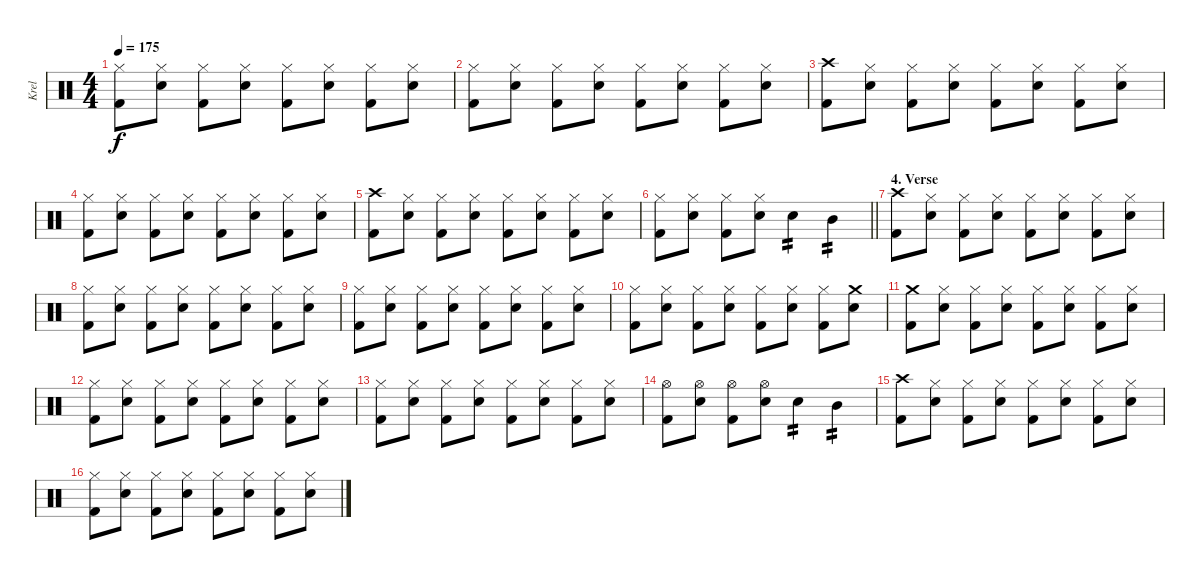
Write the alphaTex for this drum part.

\track ("Krel" "Krel") {instrument percussion}
\staff {score}
\articulation defaults
\ts (4 4)
\tempo 175
\clef neutral
\ks c
("Hi-Hat (closed)" "Kick (hit) 2").8{dy f} ("Hi-Hat (closed)" "Snare (hit) 2").8 ("Hi-Hat (closed)" "Kick (hit) 2").8 ("Hi-Hat (closed)" "Snare (hit) 2").8 ("Hi-Hat (closed)" "Kick (hit) 2").8 ("Hi-Hat (closed)" "Snare (hit) 2").8 ("Hi-Hat (closed)" "Kick (hit) 2").8 ("Hi-Hat (closed)" "Snare (hit) 2").8 |
("Hi-Hat (closed)" "Kick (hit) 2").8 ("Hi-Hat (closed)" "Snare (hit) 2").8 ("Hi-Hat (closed)" "Kick (hit) 2").8 ("Hi-Hat (closed)" "Snare (hit) 2").8 ("Hi-Hat (closed)" "Kick (hit) 2").8 ("Hi-Hat (closed)" "Snare (hit) 2").8 ("Hi-Hat (closed)" "Kick (hit) 2").8 ("Hi-Hat (closed)" "Snare (hit) 2").8 |
("Crash high (hit)" "Kick (hit) 2").8 ("Hi-Hat (closed)" "Snare (hit) 2").8 ("Hi-Hat (closed)" "Kick (hit) 2").8 ("Hi-Hat (closed)" "Snare (hit) 2").8 ("Hi-Hat (closed)" "Kick (hit) 2").8 ("Hi-Hat (closed)" "Snare (hit) 2").8 ("Hi-Hat (closed)" "Kick (hit) 2").8 ("Hi-Hat (closed)" "Snare (hit) 2").8 |
("Hi-Hat (closed)" "Kick (hit) 2").8 ("Hi-Hat (closed)" "Snare (hit) 2").8 ("Hi-Hat (closed)" "Kick (hit) 2").8 ("Hi-Hat (closed)" "Snare (hit) 2").8 ("Hi-Hat (closed)" "Kick (hit) 2").8 ("Hi-Hat (closed)" "Snare (hit) 2").8 ("Hi-Hat (closed)" "Kick (hit) 2").8 ("Hi-Hat (closed)" "Snare (hit) 2").8 |
("Crash high (hit)" "Kick (hit) 2").8 ("Hi-Hat (closed)" "Snare (hit) 2").8 ("Hi-Hat (closed)" "Kick (hit) 2").8 ("Hi-Hat (closed)" "Snare (hit) 2").8 ("Hi-Hat (closed)" "Kick (hit) 2").8 ("Hi-Hat (closed)" "Snare (hit) 2").8 ("Hi-Hat (closed)" "Kick (hit) 2").8 ("Hi-Hat (closed)" "Snare (hit) 2").8 |
\barLineRight lightlight
("Hi-Hat (closed)" "Kick (hit) 2").8 ("Hi-Hat (closed)" "Snare (hit) 2").8 ("Hi-Hat (closed)" "Kick (hit) 2").8 ("Hi-Hat (closed)" "Snare (hit) 2").8 "Snare (hit) 2".4{tp 2} "Mid Tom (hit)".4{tp 2} |
\section ("" "4. Verse")
("Crash high (hit)" "Kick (hit) 2").8 ("Hi-Hat (closed)" "Snare (hit) 2").8 ("Hi-Hat (closed)" "Kick (hit) 2").8 ("Hi-Hat (closed)" "Snare (hit) 2").8 ("Hi-Hat (closed)" "Kick (hit) 2").8 ("Hi-Hat (closed)" "Snare (hit) 2").8 ("Hi-Hat (closed)" "Kick (hit) 2").8 ("Hi-Hat (closed)" "Snare (hit) 2").8 |
("Hi-Hat (closed)" "Kick (hit) 2").8 ("Hi-Hat (closed)" "Snare (hit) 2").8 ("Hi-Hat (closed)" "Kick (hit) 2").8 ("Hi-Hat (closed)" "Snare (hit) 2").8 ("Hi-Hat (closed)" "Kick (hit) 2").8 ("Hi-Hat (closed)" "Snare (hit) 2").8 ("Hi-Hat (closed)" "Kick (hit) 2").8 ("Hi-Hat (closed)" "Snare (hit) 2").8 |
("Hi-Hat (closed)" "Kick (hit) 2").8 ("Hi-Hat (closed)" "Snare (hit) 2").8 ("Hi-Hat (closed)" "Kick (hit) 2").8 ("Hi-Hat (closed)" "Snare (hit) 2").8 ("Hi-Hat (closed)" "Kick (hit) 2").8 ("Hi-Hat (closed)" "Snare (hit) 2").8 ("Hi-Hat (closed)" "Kick (hit) 2").8 ("Hi-Hat (closed)" "Snare (hit) 2").8 |
("Hi-Hat (closed)" "Kick (hit) 2").8 ("Hi-Hat (closed)" "Snare (hit) 2").8 ("Hi-Hat (closed)" "Kick (hit) 2").8 ("Hi-Hat (closed)" "Snare (hit) 2").8 ("Hi-Hat (closed)" "Kick (hit) 2").8 ("Hi-Hat (closed)" "Snare (hit) 2").8 ("Hi-Hat (closed)" "Kick (hit) 2").8 ("Crash medium (hit)" "Snare (hit) 2").8 |
("Crash medium (hit)" "Kick (hit) 2").8 ("Hi-Hat (closed)" "Snare (hit) 2").8 ("Hi-Hat (closed)" "Kick (hit) 2").8 ("Hi-Hat (closed)" "Snare (hit) 2").8 ("Hi-Hat (closed)" "Kick (hit) 2").8 ("Hi-Hat (closed)" "Snare (hit) 2").8 ("Hi-Hat (closed)" "Kick (hit) 2").8 ("Hi-Hat (closed)" "Snare (hit) 2").8 |
("Hi-Hat (closed)" "Kick (hit) 2").8 ("Hi-Hat (closed)" "Snare (hit) 2").8 ("Hi-Hat (closed)" "Kick (hit) 2").8 ("Hi-Hat (closed)" "Snare (hit) 2").8 ("Hi-Hat (closed)" "Kick (hit) 2").8 ("Hi-Hat (closed)" "Snare (hit) 2").8 ("Hi-Hat (closed)" "Kick (hit) 2").8 ("Hi-Hat (closed)" "Snare (hit) 2").8 |
("Hi-Hat (closed)" "Kick (hit) 2").8 ("Hi-Hat (closed)" "Snare (hit) 2").8 ("Hi-Hat (closed)" "Kick (hit) 2").8 ("Hi-Hat (closed)" "Snare (hit) 2").8 ("Hi-Hat (closed)" "Kick (hit) 2").8 ("Hi-Hat (closed)" "Snare (hit) 2").8 ("Hi-Hat (closed)" "Kick (hit) 2").8 ("Hi-Hat (closed)" "Snare (hit) 2").8 |
("Hi-Hat (open)" "Kick (hit) 2").8 ("Hi-Hat (open)" "Snare (hit) 2").8 ("Hi-Hat (open)" "Kick (hit) 2").8 ("Hi-Hat (open)" "Snare (hit) 2").8 "Snare (hit) 2".4{tp 2} "Mid Tom (hit)".4{tp 2} |
("Crash high (hit)" "Kick (hit) 2").8 ("Hi-Hat (closed)" "Snare (hit) 2").8 ("Hi-Hat (closed)" "Kick (hit) 2").8 ("Hi-Hat (closed)" "Snare (hit) 2").8 ("Hi-Hat (closed)" "Kick (hit) 2").8 ("Hi-Hat (closed)" "Snare (hit) 2").8 ("Hi-Hat (closed)" "Kick (hit) 2").8 ("Hi-Hat (closed)" "Snare (hit) 2").8 |
("Hi-Hat (closed)" "Kick (hit) 2").8 ("Hi-Hat (closed)" "Snare (hit) 2").8 ("Hi-Hat (closed)" "Kick (hit) 2").8 ("Hi-Hat (closed)" "Snare (hit) 2").8 ("Hi-Hat (closed)" "Kick (hit) 2").8 ("Hi-Hat (closed)" "Snare (hit) 2").8 ("Hi-Hat (closed)" "Kick (hit) 2").8 ("Hi-Hat (closed)" "Snare (hit) 2").8
